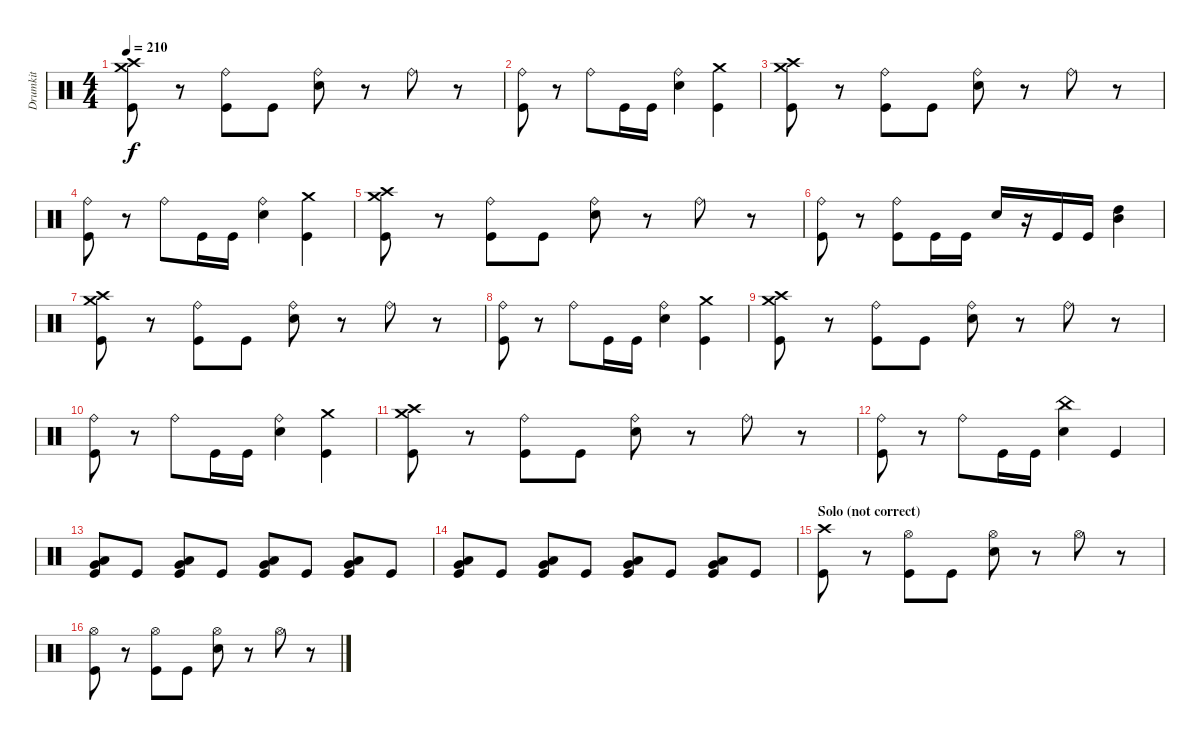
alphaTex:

\track ("Drumkit" "Drumkit") {instrument percussion}
\staff {score}
\articulation defaults
\ts (4 4)
\tempo 210
\clef neutral
\ks c
("Crash high (hit)" "Crash medium (hit)" "Kick (hit)").8{dy f} r.8 ("Ride (bell)" "Kick (hit)").8 "Kick (hit)".8 ("Ride (bell)" "Snare (hit) 2").8 r.8 "Ride (bell)".8 r.8 |
("Ride (bell)" "Kick (hit)").8 r.8 "Ride (bell)".8 "Kick (hit)".16 "Kick (hit)".16 ("Ride (bell)" "Snare (hit) 2").4 ("Crash medium (hit)" "Kick (hit)").4 |
("Crash high (hit)" "Crash medium (hit)" "Kick (hit)").8 r.8 ("Ride (bell)" "Kick (hit)").8 "Kick (hit)".8 ("Ride (bell)" "Snare (hit) 2").8 r.8 "Ride (bell)".8 r.8 |
("Ride (bell)" "Kick (hit)").8 r.8 "Ride (bell)".8 "Kick (hit)".16 "Kick (hit)".16 ("Ride (bell)" "Snare (hit) 2").4 ("Crash medium (hit)" "Kick (hit)").4 |
("Crash high (hit)" "Crash medium (hit)" "Kick (hit)").8 r.8 ("Ride (bell)" "Kick (hit)").8 "Kick (hit)".8 ("Ride (bell)" "Snare (hit) 2").8 r.8 "Ride (bell)".8 r.8 |
("Ride (bell)" "Kick (hit)").8 r.8 ("Ride (bell)" "Kick (hit)").8 "Kick (hit)".16 "Kick (hit)".16 "Snare (hit) 2".16 r.16 "Kick (hit)".16 "Kick (hit)".16 ("Mid Tom (hit)" "High Tom (hit)").4 |
("Crash high (hit)" "Crash medium (hit)" "Kick (hit)").8 r.8 ("Ride (bell)" "Kick (hit)").8 "Kick (hit)".8 ("Ride (bell)" "Snare (hit) 2").8 r.8 "Ride (bell)".8 r.8 |
("Ride (bell)" "Kick (hit)").8 r.8 "Ride (bell)".8 "Kick (hit)".16 "Kick (hit)".16 ("Ride (bell)" "Snare (hit) 2").4 ("Crash medium (hit)" "Kick (hit)").4 |
("Crash high (hit)" "Crash medium (hit)" "Kick (hit)").8 r.8 ("Ride (bell)" "Kick (hit)").8 "Kick (hit)".8 ("Ride (bell)" "Snare (hit) 2").8 r.8 "Ride (bell)".8 r.8 |
("Ride (bell)" "Kick (hit)").8 r.8 "Ride (bell)".8 "Kick (hit)".16 "Kick (hit)".16 ("Ride (bell)" "Snare (hit) 2").4 ("Crash medium (hit)" "Kick (hit)").4 |
("Crash high (hit)" "Crash medium (hit)" "Kick (hit)").8 r.8 ("Ride (bell)" "Kick (hit)").8 "Kick (hit)".8 ("Ride (bell)" "Snare (hit) 2").8 r.8 "Ride (bell)".8 r.8 |
("Ride (bell)" "Kick (hit)").8 r.8 "Ride (bell)".8 "Kick (hit)".16 "Kick (hit)".16 ("China (hit)" "Snare (hit) 2").4 "Kick (hit)".4 |
("Low Tom (hit)" "Very Low Tom (hit)" "Kick (hit)").8 "Kick (hit)".8 ("Low Tom (hit)" "Very Low Tom (hit)" "Kick (hit)").8 "Kick (hit)".8 ("Low Tom (hit)" "Very Low Tom (hit)" "Kick (hit)").8 "Kick (hit)".8 ("Low Tom (hit)" "Very Low Tom (hit)" "Kick (hit)").8 "Kick (hit)".8 |
("Low Tom (hit)" "Very Low Tom (hit)" "Kick (hit)").8 "Kick (hit)".8 ("Low Tom (hit)" "Very Low Tom (hit)" "Kick (hit)").8 "Kick (hit)".8 ("Low Tom (hit)" "Very Low Tom (hit)" "Kick (hit)").8 "Kick (hit)".8 ("Low Tom (hit)" "Very Low Tom (hit)" "Kick (hit)").8 "Kick (hit)".8 |
\section ("" "Solo (not correct)")
("Crash high (hit)" "Kick (hit)").8 r.8 ("Hi-Hat (open)" "Kick (hit)").8 "Kick (hit)".8 ("Hi-Hat (open)" "Snare (hit) 2").8 r.8 "Hi-Hat (open)".8 r.8 |
("Hi-Hat (open)" "Kick (hit)").8 r.8 ("Hi-Hat (open)" "Kick (hit)").8 "Kick (hit)".8 ("Hi-Hat (open)" "Snare (hit) 2").8 r.8 "Hi-Hat (open)".8 r.8
